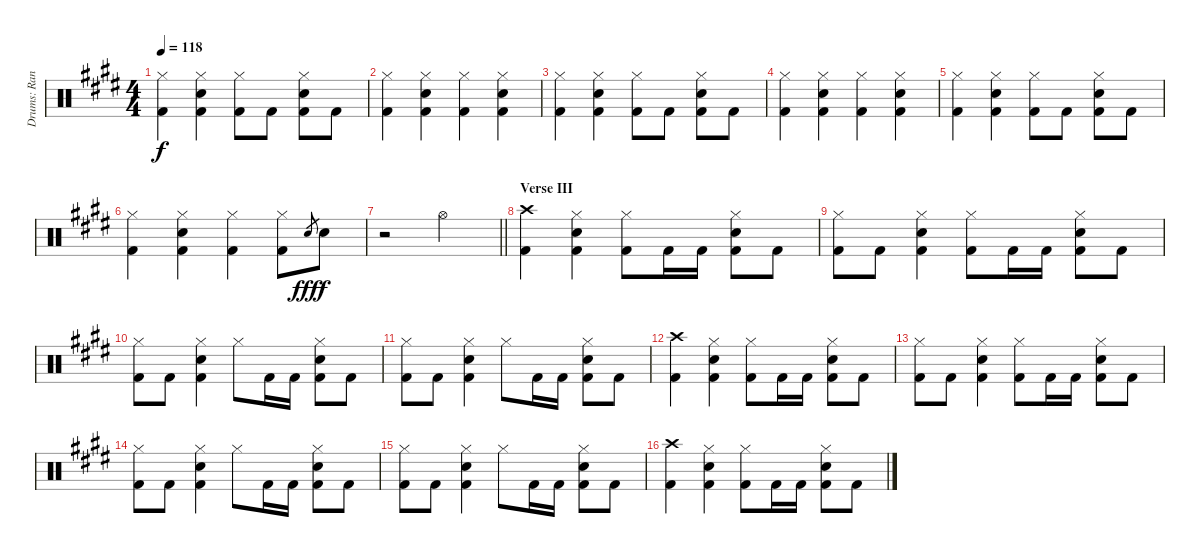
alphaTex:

\track ("Drums: Randy" "Drums: Ran") {instrument percussion}
\staff {score}
\articulation defaults
\ts (4 4)
\tempo 118
\clef neutral
\ks e
("Hi-Hat (closed)" "Kick (hit) 2").4{dy f} ("Hi-Hat (closed)" "Snare (hit) 2" "Kick (hit) 2").4 ("Hi-Hat (closed)" "Kick (hit) 2").8 "Kick (hit) 2".8 ("Hi-Hat (closed)" "Snare (hit) 2" "Kick (hit) 2").8 "Kick (hit) 2".8 |
("Hi-Hat (closed)" "Kick (hit) 2").4 ("Hi-Hat (closed)" "Snare (hit) 2" "Kick (hit) 2").4 ("Hi-Hat (closed)" "Kick (hit) 2").4 ("Hi-Hat (closed)" "Snare (hit) 2" "Kick (hit) 2").4 |
("Hi-Hat (closed)" "Kick (hit) 2").4 ("Hi-Hat (closed)" "Snare (hit) 2" "Kick (hit) 2").4 ("Hi-Hat (closed)" "Kick (hit) 2").8 "Kick (hit) 2".8 ("Hi-Hat (closed)" "Snare (hit) 2" "Kick (hit) 2").8 "Kick (hit) 2".8 |
("Hi-Hat (closed)" "Kick (hit) 2").4 ("Hi-Hat (closed)" "Snare (hit) 2" "Kick (hit) 2").4 ("Hi-Hat (closed)" "Kick (hit) 2").4 ("Hi-Hat (closed)" "Snare (hit) 2" "Kick (hit) 2").4 |
("Hi-Hat (closed)" "Kick (hit) 2").4 ("Hi-Hat (closed)" "Snare (hit) 2" "Kick (hit) 2").4 ("Hi-Hat (closed)" "Kick (hit) 2").8 "Kick (hit) 2".8 ("Hi-Hat (closed)" "Snare (hit) 2" "Kick (hit) 2").8 "Kick (hit) 2".8 |
("Hi-Hat (closed)" "Kick (hit) 2").4 ("Hi-Hat (closed)" "Snare (hit) 2" "Kick (hit) 2").4 ("Hi-Hat (closed)" "Kick (hit) 2").4 ("Hi-Hat (closed)" "Kick (hit) 2").8 "Snare (hit) 2".8{gr dy fff} "Snare (hit) 2".8{dy f} |
\barLineRight lightlight
r.2 "Hi-Hat (open)".2 |
\section ("" "Verse III")
("Crash high (hit)" "Kick (hit) 2").4 ("Hi-Hat (closed)" "Snare (hit) 2" "Kick (hit) 2").4 ("Hi-Hat (closed)" "Kick (hit) 2").8 "Kick (hit) 2".16 "Kick (hit) 2".16 ("Hi-Hat (closed)" "Snare (hit) 2" "Kick (hit) 2").8 "Kick (hit) 2".8 |
("Hi-Hat (closed)" "Kick (hit) 2").8 "Kick (hit) 2".8 ("Hi-Hat (closed)" "Snare (hit) 2" "Kick (hit) 2").4 ("Hi-Hat (closed)" "Kick (hit) 2").8 "Kick (hit) 2".16 "Kick (hit) 2".16 ("Hi-Hat (closed)" "Snare (hit) 2" "Kick (hit) 2").8 "Kick (hit) 2".8 |
("Hi-Hat (closed)" "Kick (hit) 2").8 "Kick (hit) 2".8 ("Hi-Hat (closed)" "Snare (hit) 2" "Kick (hit) 2").4 "Hi-Hat (closed)".8 "Kick (hit) 2".16 "Kick (hit) 2".16 ("Hi-Hat (closed)" "Snare (hit) 2" "Kick (hit) 2").8 "Kick (hit) 2".8 |
("Hi-Hat (closed)" "Kick (hit) 2").8 "Kick (hit) 2".8 ("Hi-Hat (closed)" "Snare (hit) 2" "Kick (hit) 2").4 "Hi-Hat (closed)".8 "Kick (hit) 2".16 "Kick (hit) 2".16 ("Hi-Hat (closed)" "Snare (hit) 2" "Kick (hit) 2").8 "Kick (hit) 2".8 |
("Crash high (hit)" "Kick (hit) 2").4 ("Hi-Hat (closed)" "Snare (hit) 2" "Kick (hit) 2").4 ("Hi-Hat (closed)" "Kick (hit) 2").8 "Kick (hit) 2".16 "Kick (hit) 2".16 ("Hi-Hat (closed)" "Snare (hit) 2" "Kick (hit) 2").8 "Kick (hit) 2".8 |
("Hi-Hat (closed)" "Kick (hit) 2").8 "Kick (hit) 2".8 ("Hi-Hat (closed)" "Snare (hit) 2" "Kick (hit) 2").4 ("Hi-Hat (closed)" "Kick (hit) 2").8 "Kick (hit) 2".16 "Kick (hit) 2".16 ("Hi-Hat (closed)" "Snare (hit) 2" "Kick (hit) 2").8 "Kick (hit) 2".8 |
("Hi-Hat (closed)" "Kick (hit) 2").8 "Kick (hit) 2".8 ("Hi-Hat (closed)" "Snare (hit) 2" "Kick (hit) 2").4 "Hi-Hat (closed)".8 "Kick (hit) 2".16 "Kick (hit) 2".16 ("Hi-Hat (closed)" "Snare (hit) 2" "Kick (hit) 2").8 "Kick (hit) 2".8 |
("Hi-Hat (closed)" "Kick (hit) 2").8 "Kick (hit) 2".8 ("Hi-Hat (closed)" "Snare (hit) 2" "Kick (hit) 2").4 "Hi-Hat (closed)".8 "Kick (hit) 2".16 "Kick (hit) 2".16 ("Hi-Hat (closed)" "Snare (hit) 2" "Kick (hit) 2").8 "Kick (hit) 2".8 |
("Crash high (hit)" "Kick (hit) 2").4 ("Hi-Hat (closed)" "Snare (hit) 2" "Kick (hit) 2").4 ("Hi-Hat (closed)" "Kick (hit) 2").8 "Kick (hit) 2".16 "Kick (hit) 2".16 ("Hi-Hat (closed)" "Snare (hit) 2" "Kick (hit) 2").8 "Kick (hit) 2".8
